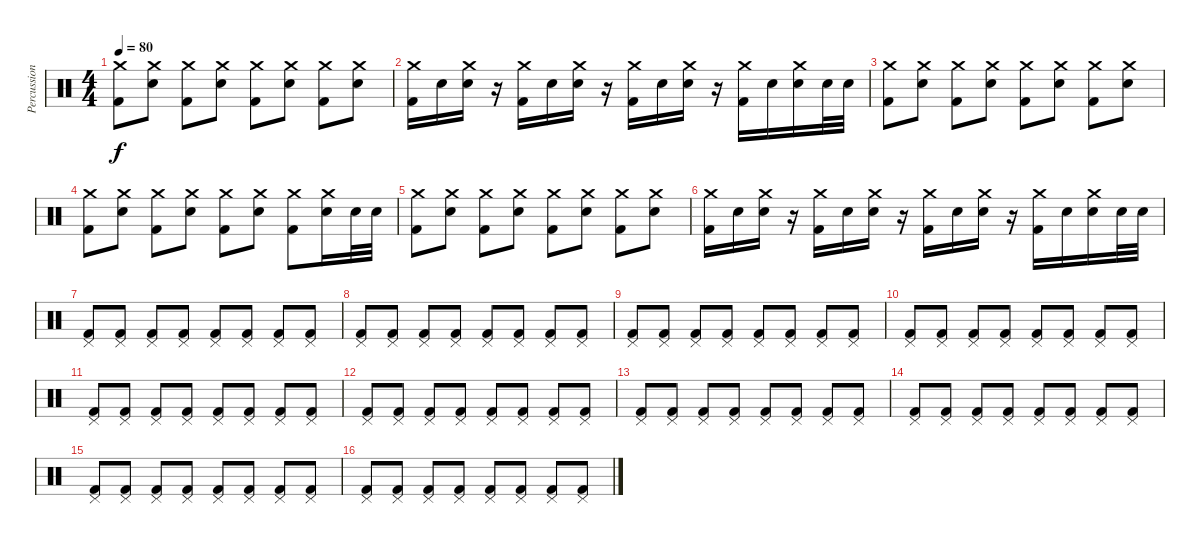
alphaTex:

\track ("Percussions" "Percussion") {instrument percussion}
\staff {score}
\articulation defaults
\ts (4 4)
\tempo 80
\clef neutral
\ks c
("Crash medium (hit)" "Kick (hit) 2").8{dy f} ("Crash medium (hit)" "Electric Snare (hit)").8 ("Crash medium (hit)" "Kick (hit) 2").8 ("Crash medium (hit)" "Electric Snare (hit)").8 ("Crash medium (hit)" "Kick (hit) 2").8 ("Crash medium (hit)" "Electric Snare (hit)").8 ("Crash medium (hit)" "Kick (hit) 2").8 ("Crash medium (hit)" "Electric Snare (hit)").8 |
("Crash medium (hit)" "Kick (hit) 2").16 "Electric Snare (hit)".16 ("Crash medium (hit)" "Electric Snare (hit)").16 r.16 ("Crash medium (hit)" "Kick (hit) 2").16 "Electric Snare (hit)".16 ("Crash medium (hit)" "Electric Snare (hit)").16 r.16 ("Crash medium (hit)" "Kick (hit) 2").16 "Electric Snare (hit)".16 ("Crash medium (hit)" "Electric Snare (hit)").16 r.16 ("Crash medium (hit)" "Kick (hit) 2").16 "Electric Snare (hit)".16 ("Crash medium (hit)" "Electric Snare (hit)").16 "Electric Snare (hit)".32 "Electric Snare (hit)".32 |
("Crash medium (hit)" "Kick (hit) 2").8 ("Crash medium (hit)" "Electric Snare (hit)").8 ("Crash medium (hit)" "Kick (hit) 2").8 ("Crash medium (hit)" "Electric Snare (hit)").8 ("Crash medium (hit)" "Kick (hit) 2").8 ("Crash medium (hit)" "Electric Snare (hit)").8 ("Crash medium (hit)" "Kick (hit) 2").8 ("Crash medium (hit)" "Electric Snare (hit)").8 |
("Crash medium (hit)" "Kick (hit) 2").8 ("Crash medium (hit)" "Electric Snare (hit)").8 ("Crash medium (hit)" "Kick (hit) 2").8 ("Crash medium (hit)" "Electric Snare (hit)").8 ("Crash medium (hit)" "Kick (hit) 2").8 ("Crash medium (hit)" "Electric Snare (hit)").8 ("Crash medium (hit)" "Kick (hit) 2").8 ("Crash medium (hit)" "Electric Snare (hit)").16 "Electric Snare (hit)".32 "Electric Snare (hit)".32 |
("Crash medium (hit)" "Kick (hit) 2").8 ("Crash medium (hit)" "Electric Snare (hit)").8 ("Crash medium (hit)" "Kick (hit) 2").8 ("Crash medium (hit)" "Electric Snare (hit)").8 ("Crash medium (hit)" "Kick (hit) 2").8 ("Crash medium (hit)" "Electric Snare (hit)").8 ("Crash medium (hit)" "Kick (hit) 2").8 ("Crash medium (hit)" "Electric Snare (hit)").8 |
("Crash medium (hit)" "Kick (hit) 2").16 "Electric Snare (hit)".16 ("Crash medium (hit)" "Electric Snare (hit)").16 r.16 ("Crash medium (hit)" "Kick (hit) 2").16 "Electric Snare (hit)".16 ("Crash medium (hit)" "Electric Snare (hit)").16 r.16 ("Crash medium (hit)" "Kick (hit) 2").16 "Electric Snare (hit)".16 ("Crash medium (hit)" "Electric Snare (hit)").16 r.16 ("Crash medium (hit)" "Kick (hit) 2").16 "Electric Snare (hit)".16 ("Crash medium (hit)" "Electric Snare (hit)").16 "Electric Snare (hit)".32 "Electric Snare (hit)".32 |
("Pedal Hi-Hat (hit)" "Kick (hit) 2").8 ("Pedal Hi-Hat (hit)" "Kick (hit) 2").8 ("Pedal Hi-Hat (hit)" "Kick (hit) 2").8 ("Pedal Hi-Hat (hit)" "Kick (hit) 2").8 ("Pedal Hi-Hat (hit)" "Kick (hit) 2").8 ("Pedal Hi-Hat (hit)" "Kick (hit) 2").8 ("Pedal Hi-Hat (hit)" "Kick (hit) 2").8 ("Pedal Hi-Hat (hit)" "Kick (hit) 2").8 |
("Pedal Hi-Hat (hit)" "Kick (hit) 2").8 ("Pedal Hi-Hat (hit)" "Kick (hit) 2").8 ("Pedal Hi-Hat (hit)" "Kick (hit) 2").8 ("Pedal Hi-Hat (hit)" "Kick (hit) 2").8 ("Pedal Hi-Hat (hit)" "Kick (hit) 2").8 ("Pedal Hi-Hat (hit)" "Kick (hit) 2").8 ("Pedal Hi-Hat (hit)" "Kick (hit) 2").8 ("Pedal Hi-Hat (hit)" "Kick (hit) 2").8 |
("Pedal Hi-Hat (hit)" "Kick (hit) 2").8 ("Pedal Hi-Hat (hit)" "Kick (hit) 2").8 ("Pedal Hi-Hat (hit)" "Kick (hit) 2").8 ("Pedal Hi-Hat (hit)" "Kick (hit) 2").8 ("Pedal Hi-Hat (hit)" "Kick (hit) 2").8 ("Pedal Hi-Hat (hit)" "Kick (hit) 2").8 ("Pedal Hi-Hat (hit)" "Kick (hit) 2").8 ("Pedal Hi-Hat (hit)" "Kick (hit) 2").8 |
("Pedal Hi-Hat (hit)" "Kick (hit) 2").8 ("Pedal Hi-Hat (hit)" "Kick (hit) 2").8 ("Pedal Hi-Hat (hit)" "Kick (hit) 2").8 ("Pedal Hi-Hat (hit)" "Kick (hit) 2").8 ("Pedal Hi-Hat (hit)" "Kick (hit) 2").8 ("Pedal Hi-Hat (hit)" "Kick (hit) 2").8 ("Pedal Hi-Hat (hit)" "Kick (hit) 2").8 ("Pedal Hi-Hat (hit)" "Kick (hit) 2").8 |
("Pedal Hi-Hat (hit)" "Kick (hit) 2").8 ("Pedal Hi-Hat (hit)" "Kick (hit) 2").8 ("Pedal Hi-Hat (hit)" "Kick (hit) 2").8 ("Pedal Hi-Hat (hit)" "Kick (hit) 2").8 ("Pedal Hi-Hat (hit)" "Kick (hit) 2").8 ("Pedal Hi-Hat (hit)" "Kick (hit) 2").8 ("Pedal Hi-Hat (hit)" "Kick (hit) 2").8 ("Pedal Hi-Hat (hit)" "Kick (hit) 2").8 |
("Pedal Hi-Hat (hit)" "Kick (hit) 2").8 ("Pedal Hi-Hat (hit)" "Kick (hit) 2").8 ("Pedal Hi-Hat (hit)" "Kick (hit) 2").8 ("Pedal Hi-Hat (hit)" "Kick (hit) 2").8 ("Pedal Hi-Hat (hit)" "Kick (hit) 2").8 ("Pedal Hi-Hat (hit)" "Kick (hit) 2").8 ("Pedal Hi-Hat (hit)" "Kick (hit) 2").8 ("Pedal Hi-Hat (hit)" "Kick (hit) 2").8 |
("Pedal Hi-Hat (hit)" "Kick (hit) 2").8 ("Pedal Hi-Hat (hit)" "Kick (hit) 2").8 ("Pedal Hi-Hat (hit)" "Kick (hit) 2").8 ("Pedal Hi-Hat (hit)" "Kick (hit) 2").8 ("Pedal Hi-Hat (hit)" "Kick (hit) 2").8 ("Pedal Hi-Hat (hit)" "Kick (hit) 2").8 ("Pedal Hi-Hat (hit)" "Kick (hit) 2").8 ("Pedal Hi-Hat (hit)" "Kick (hit) 2").8 |
("Pedal Hi-Hat (hit)" "Kick (hit) 2").8 ("Pedal Hi-Hat (hit)" "Kick (hit) 2").8 ("Pedal Hi-Hat (hit)" "Kick (hit) 2").8 ("Pedal Hi-Hat (hit)" "Kick (hit) 2").8 ("Pedal Hi-Hat (hit)" "Kick (hit) 2").8 ("Pedal Hi-Hat (hit)" "Kick (hit) 2").8 ("Pedal Hi-Hat (hit)" "Kick (hit) 2").8 ("Pedal Hi-Hat (hit)" "Kick (hit) 2").8 |
("Pedal Hi-Hat (hit)" "Kick (hit) 2").8 ("Pedal Hi-Hat (hit)" "Kick (hit) 2").8 ("Pedal Hi-Hat (hit)" "Kick (hit) 2").8 ("Pedal Hi-Hat (hit)" "Kick (hit) 2").8 ("Pedal Hi-Hat (hit)" "Kick (hit) 2").8 ("Pedal Hi-Hat (hit)" "Kick (hit) 2").8 ("Pedal Hi-Hat (hit)" "Kick (hit) 2").8 ("Pedal Hi-Hat (hit)" "Kick (hit) 2").8 |
("Pedal Hi-Hat (hit)" "Kick (hit) 2").8 ("Pedal Hi-Hat (hit)" "Kick (hit) 2").8 ("Pedal Hi-Hat (hit)" "Kick (hit) 2").8 ("Pedal Hi-Hat (hit)" "Kick (hit) 2").8 ("Pedal Hi-Hat (hit)" "Kick (hit) 2").8 ("Pedal Hi-Hat (hit)" "Kick (hit) 2").8 ("Pedal Hi-Hat (hit)" "Kick (hit) 2").8 ("Pedal Hi-Hat (hit)" "Kick (hit) 2").8
